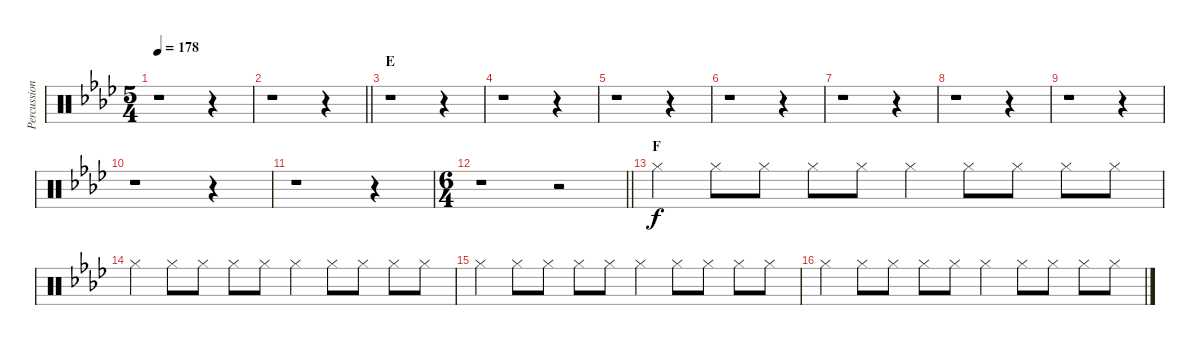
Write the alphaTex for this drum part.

\track ("Percussion" "Percussion") {instrument percussion}
\staff {score}
\articulation defaults
\ts (5 4)
\tempo 178
\clef neutral
\ks ab
r.1{dy f} r.4 |
\barLineRight lightlight
r.1 r.4 |
\section ("" "E")
r.1 r.4 |
r.1 r.4 |
r.1 r.4 |
r.1 r.4 |
r.1 r.4 |
r.1 r.4 |
r.1 r.4 |
r.1 r.4 |
r.1 r.4 |
\ts (6 4)
\barLineRight lightlight
r.1 r.2 |
\section ("" "F")
"Hi-Hat (closed)".4 "Hi-Hat (closed)".8 "Hi-Hat (closed)".8 "Hi-Hat (closed)".8 "Hi-Hat (closed)".8 "Hi-Hat (closed)".4 "Hi-Hat (closed)".8 "Hi-Hat (closed)".8 "Hi-Hat (closed)".8 "Hi-Hat (closed)".8 |
"Hi-Hat (closed)".4 "Hi-Hat (closed)".8 "Hi-Hat (closed)".8 "Hi-Hat (closed)".8 "Hi-Hat (closed)".8 "Hi-Hat (closed)".4 "Hi-Hat (closed)".8 "Hi-Hat (closed)".8 "Hi-Hat (closed)".8 "Hi-Hat (closed)".8 |
"Hi-Hat (closed)".4 "Hi-Hat (closed)".8 "Hi-Hat (closed)".8 "Hi-Hat (closed)".8 "Hi-Hat (closed)".8 "Hi-Hat (closed)".4 "Hi-Hat (closed)".8 "Hi-Hat (closed)".8 "Hi-Hat (closed)".8 "Hi-Hat (closed)".8 |
"Hi-Hat (closed)".4 "Hi-Hat (closed)".8 "Hi-Hat (closed)".8 "Hi-Hat (closed)".8 "Hi-Hat (closed)".8 "Hi-Hat (closed)".4 "Hi-Hat (closed)".8 "Hi-Hat (closed)".8 "Hi-Hat (closed)".8 "Hi-Hat (closed)".8
